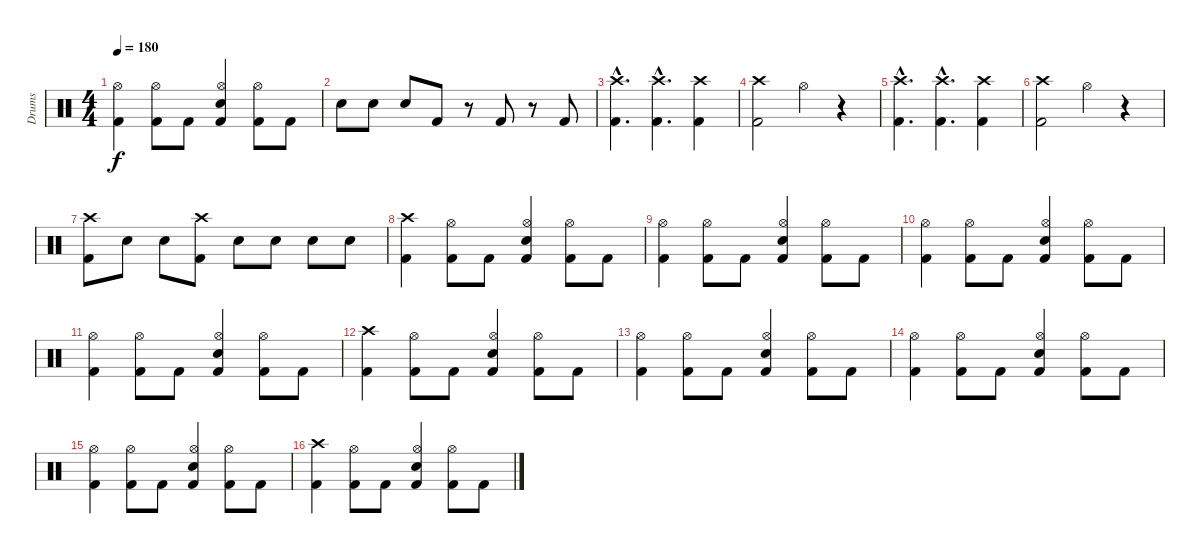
\track ("Drums" "Drums") {instrument percussion}
\staff {score}
\articulation defaults
\ts (4 4)
\tempo 180
\clef neutral
\ks c
("Kick (hit) 2" "Hi-Hat (open)").4{dy f} ("Kick (hit) 2" "Hi-Hat (open)").8 "Kick (hit) 2".8 ("Kick (hit) 2" "Snare (hit) 2" "Hi-Hat (open)").4 ("Kick (hit) 2" "Hi-Hat (open)").8 "Kick (hit) 2".8 |
"Snare (hit) 2".8 "Snare (hit) 2".8 "Snare (hit) 2".8 "Kick (hit) 2".8 r.8 "Kick (hit) 2".8 r.8 "Kick (hit) 2".8 |
("Kick (hit) 2"{hac} "Crash high (hit)"{hac}).4{d} ("Kick (hit) 2"{hac} "Crash high (hit)"{hac}).4{d} ("Kick (hit) 2" "Crash high (hit)").4 |
("Kick (hit) 2" "Crash high (hit)").2 "Hi-Hat (open)".4 r.4 |
("Kick (hit) 2"{hac} "Crash high (hit)"{hac}).4{d} ("Kick (hit) 2"{hac} "Crash high (hit)"{hac}).4{d} ("Kick (hit) 2" "Crash high (hit)").4 |
("Kick (hit) 2" "Crash high (hit)").2 "Hi-Hat (open)".4 r.4 |
("Kick (hit) 2" "Crash high (hit)").8 "Snare (hit) 2".8 "Snare (hit) 2".8 ("Kick (hit) 2" "Crash high (hit)").8 "Snare (hit) 2".8 "Snare (hit) 2".8 "Snare (hit) 2".8 "Snare (hit) 2".8 |
("Kick (hit) 2" "Crash high (hit)").4 ("Kick (hit) 2" "Hi-Hat (open)").8 "Kick (hit) 2".8 ("Kick (hit) 2" "Snare (hit) 2" "Hi-Hat (open)").4 ("Kick (hit) 2" "Hi-Hat (open)").8 "Kick (hit) 2".8 |
("Kick (hit) 2" "Hi-Hat (open)").4 ("Kick (hit) 2" "Hi-Hat (open)").8 "Kick (hit) 2".8 ("Kick (hit) 2" "Snare (hit) 2" "Hi-Hat (open)").4 ("Kick (hit) 2" "Hi-Hat (open)").8 "Kick (hit) 2".8 |
("Kick (hit) 2" "Hi-Hat (open)").4 ("Kick (hit) 2" "Hi-Hat (open)").8 "Kick (hit) 2".8 ("Kick (hit) 2" "Snare (hit) 2" "Hi-Hat (open)").4 ("Kick (hit) 2" "Hi-Hat (open)").8 "Kick (hit) 2".8 |
("Kick (hit) 2" "Hi-Hat (open)").4 ("Kick (hit) 2" "Hi-Hat (open)").8 "Kick (hit) 2".8 ("Kick (hit) 2" "Snare (hit) 2" "Hi-Hat (open)").4 ("Kick (hit) 2" "Hi-Hat (open)").8 "Kick (hit) 2".8 |
("Kick (hit) 2" "Crash high (hit)").4 ("Kick (hit) 2" "Hi-Hat (open)").8 "Kick (hit) 2".8 ("Kick (hit) 2" "Snare (hit) 2" "Hi-Hat (open)").4 ("Kick (hit) 2" "Hi-Hat (open)").8 "Kick (hit) 2".8 |
("Kick (hit) 2" "Hi-Hat (open)").4 ("Kick (hit) 2" "Hi-Hat (open)").8 "Kick (hit) 2".8 ("Kick (hit) 2" "Snare (hit) 2" "Hi-Hat (open)").4 ("Kick (hit) 2" "Hi-Hat (open)").8 "Kick (hit) 2".8 |
("Kick (hit) 2" "Hi-Hat (open)").4 ("Kick (hit) 2" "Hi-Hat (open)").8 "Kick (hit) 2".8 ("Kick (hit) 2" "Snare (hit) 2" "Hi-Hat (open)").4 ("Kick (hit) 2" "Hi-Hat (open)").8 "Kick (hit) 2".8 |
("Kick (hit) 2" "Hi-Hat (open)").4 ("Kick (hit) 2" "Hi-Hat (open)").8 "Kick (hit) 2".8 ("Kick (hit) 2" "Snare (hit) 2" "Hi-Hat (open)").4 ("Kick (hit) 2" "Hi-Hat (open)").8 "Kick (hit) 2".8 |
("Kick (hit) 2" "Crash high (hit)").4 ("Kick (hit) 2" "Hi-Hat (open)").8 "Kick (hit) 2".8 ("Kick (hit) 2" "Snare (hit) 2" "Hi-Hat (open)").4 ("Kick (hit) 2" "Hi-Hat (open)").8 "Kick (hit) 2".8
